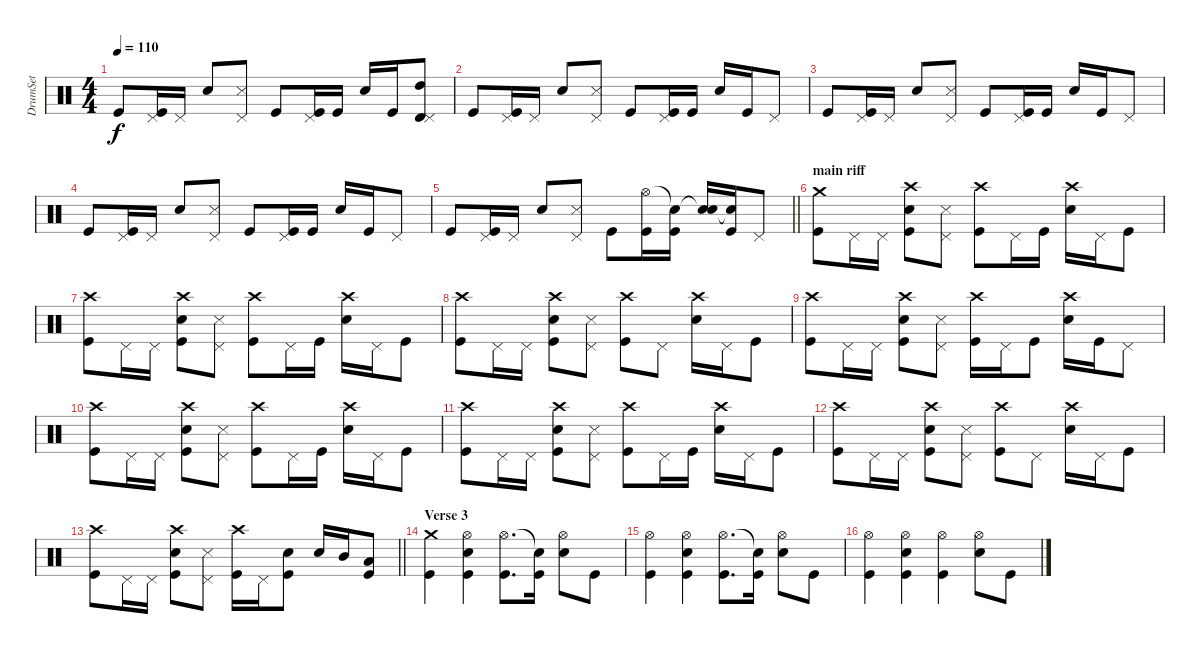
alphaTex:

\track ("DrumSet" "DrumSet") {instrument percussion}
\staff {score}
\articulation defaults
\ts (4 4)
\tempo 110
\clef neutral
\ks c "Kick (hit)".8{dy f}
("Pedal Hi-Hat (hit)" "Kick (hit)").16 "Pedal Hi-Hat (hit)".16 "Snare (hit) 2".8 ("Snare (side stick) 3" "Pedal Hi-Hat (hit)").8 "Kick (hit)".8 ("Pedal Hi-Hat (hit)" "Kick (hit)").16 "Kick (hit)".16 "Snare (hit) 2".16 "Kick (hit)".16 ("High Tom (hit)" "Timbale high (hit)" "Pedal Hi-Hat (hit)").8 |
"Kick (hit)".8 ("Pedal Hi-Hat (hit)" "Kick (hit)").16 "Pedal Hi-Hat (hit)".16 "Snare (hit) 2".8 ("Snare (side stick) 3" "Pedal Hi-Hat (hit)").8 "Kick (hit)".8 ("Pedal Hi-Hat (hit)" "Kick (hit)").16 "Kick (hit)".16 "Snare (hit) 2".16 "Kick (hit)".16 "Pedal Hi-Hat (hit)".8 |
"Kick (hit)".8 ("Pedal Hi-Hat (hit)" "Kick (hit)").16 "Pedal Hi-Hat (hit)".16 "Snare (hit) 2".8 ("Snare (side stick) 3" "Pedal Hi-Hat (hit)").8 "Kick (hit)".8 ("Pedal Hi-Hat (hit)" "Kick (hit)").16 "Kick (hit)".16 "Snare (hit) 2".16 "Kick (hit)".16 "Pedal Hi-Hat (hit)".8 |
"Kick (hit)".8 ("Pedal Hi-Hat (hit)" "Kick (hit)").16 "Pedal Hi-Hat (hit)".16 "Snare (hit) 2".8 ("Snare (side stick) 3" "Pedal Hi-Hat (hit)").8 "Kick (hit)".8 ("Pedal Hi-Hat (hit)" "Kick (hit)").16 "Kick (hit)".16 "Snare (hit) 2".16 "Kick (hit)".16 "Pedal Hi-Hat (hit)".8 |
\barLineRight lightlight "Kick (hit)".8
("Pedal Hi-Hat (hit)" "Kick (hit)").16 "Pedal Hi-Hat (hit)".16 "Snare (hit) 2".8 ("Snare (side stick) 3" "Pedal Hi-Hat (hit)").8 "Kick (hit)".8 ("Hi-Hat (open)" "Kick (hit)").16 ("Snare (hit)"{t} "Kick (hit)").16 ("Snare (hit)"{t} "Snare (hit) 2").16 ("Snare (hit)"{t} "Kick (hit)").16 "Pedal Hi-Hat (hit)".8 |
\section ("" "main riff")
("Crash medium (hit)" "Kick (hit)").8 "Pedal Hi-Hat (hit)".16 "Pedal Hi-Hat (hit)".16 ("Crash high (hit)" "Snare (hit) 2" "Kick (hit)").8 ("Snare (side stick) 3" "Pedal Hi-Hat (hit)").8 ("Crash high (hit)" "Kick (hit)").8 "Pedal Hi-Hat (hit)".16 "Kick (hit)".16 ("Crash high (hit)" "Snare (hit) 2").16 "Pedal Hi-Hat (hit)".16 "Kick (hit)".8 |
("Crash high (hit)" "Kick (hit)").8 "Pedal Hi-Hat (hit)".16 "Pedal Hi-Hat (hit)".16 ("Crash high (hit)" "Snare (hit) 2" "Kick (hit)").8 ("Snare (side stick) 3" "Pedal Hi-Hat (hit)").8 ("Crash high (hit)" "Kick (hit)").8 "Pedal Hi-Hat (hit)".16 "Kick (hit)".16 ("Crash high (hit)" "Snare (hit) 2").16 "Pedal Hi-Hat (hit)".16 "Kick (hit)".8 |
("Crash high (hit)" "Kick (hit)").8 "Pedal Hi-Hat (hit)".16 "Pedal Hi-Hat (hit)".16 ("Crash high (hit)" "Snare (hit) 2" "Kick (hit)").8 ("Snare (side stick) 3" "Pedal Hi-Hat (hit)").8 ("Crash high (hit)" "Kick (hit)").8 "Pedal Hi-Hat (hit)".8 ("Crash high (hit)" "Snare (hit) 2").16 "Pedal Hi-Hat (hit)".16 "Kick (hit)".8 |
("Crash high (hit)" "Kick (hit)").8 "Pedal Hi-Hat (hit)".16 "Pedal Hi-Hat (hit)".16 ("Crash high (hit)" "Snare (hit) 2" "Kick (hit)").8 ("Snare (side stick) 3" "Pedal Hi-Hat (hit)").8 ("Crash high (hit)" "Kick (hit)").16 "Pedal Hi-Hat (hit)".16 "Kick (hit)".8 ("Crash high (hit)" "Snare (hit) 2").16 "Kick (hit)".16 "Pedal Hi-Hat (hit)".8 |
("Crash high (hit)" "Kick (hit)").8 "Pedal Hi-Hat (hit)".16 "Pedal Hi-Hat (hit)".16 ("Crash high (hit)" "Snare (hit) 2" "Kick (hit)").8 ("Snare (side stick) 3" "Pedal Hi-Hat (hit)").8 ("Crash high (hit)" "Kick (hit)").8 "Pedal Hi-Hat (hit)".16 "Kick (hit)".16 ("Crash high (hit)" "Snare (hit) 2").16 "Pedal Hi-Hat (hit)".16 "Kick (hit)".8 |
("Crash high (hit)" "Kick (hit)").8 "Pedal Hi-Hat (hit)".16 "Pedal Hi-Hat (hit)".16 ("Crash high (hit)" "Snare (hit) 2" "Kick (hit)").8 ("Snare (side stick) 3" "Pedal Hi-Hat (hit)").8 ("Crash high (hit)" "Kick (hit)").8 "Pedal Hi-Hat (hit)".16 "Kick (hit)".16 ("Crash high (hit)" "Snare (hit) 2").16 "Pedal Hi-Hat (hit)".16 "Kick (hit)".8 |
("Crash high (hit)" "Kick (hit)").8 "Pedal Hi-Hat (hit)".16 "Pedal Hi-Hat (hit)".16 ("Crash high (hit)" "Snare (hit) 2" "Kick (hit)").8 ("Snare (side stick) 3" "Pedal Hi-Hat (hit)").8 ("Crash high (hit)" "Kick (hit)").8 "Pedal Hi-Hat (hit)".8 ("Crash high (hit)" "Snare (hit) 2").16 "Pedal Hi-Hat (hit)".16 "Kick (hit)".8 |
\barLineRight lightlight
("Crash high (hit)" "Kick (hit)").8 "Pedal Hi-Hat (hit)".16 "Pedal Hi-Hat (hit)".16 ("Crash high (hit)" "Snare (hit) 2" "Kick (hit)").8 ("Snare (side stick) 3" "Pedal Hi-Hat (hit)").8 ("Crash high (hit)" "Kick (hit)").16 "Pedal Hi-Hat (hit)".16 ("Snare (hit) 2" "Kick (hit)").8 "Snare (hit) 2".16 "Mid Tom (hit)".16 ("Low Tom (hit)" "Kick (hit)").8 |
\section ("" "Verse 3")
("Crash medium (hit)" "Kick (hit)").4 ("Hi-Hat (open)" "Snare (hit) 2" "Kick (hit)").4 ("Hi-Hat (open)" "Kick (hit)").8{d} ("Snare (hit)"{t} "Kick (hit)").16 ("Hi-Hat (open)" "Snare (hit) 2").8 "Kick (hit)".8 |
("Hi-Hat (open)" "Kick (hit)").4 ("Hi-Hat (open)" "Snare (hit) 2" "Kick (hit)").4 ("Hi-Hat (open)" "Kick (hit)").8{d} ("Snare (hit)"{t} "Kick (hit)").16 ("Hi-Hat (open)" "Snare (hit) 2").8 "Kick (hit)".8 |
("Hi-Hat (open)" "Kick (hit)").4 ("Hi-Hat (open)" "Snare (hit) 2" "Kick (hit)").4 ("Hi-Hat (open)" "Kick (hit)").4 ("Hi-Hat (open)" "Snare (hit) 2").8 "Kick (hit)".8
